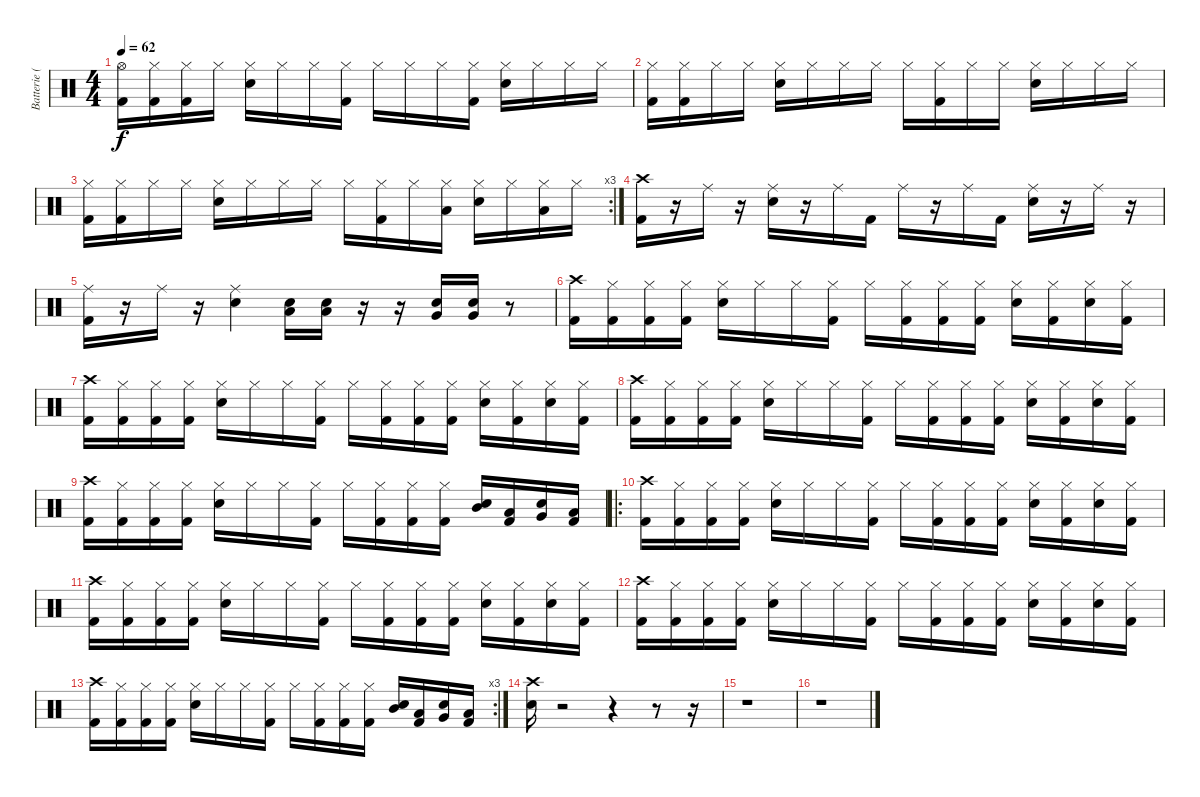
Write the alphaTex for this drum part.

\track ("Batterie (RV)" "Batterie (") {instrument percussion}
\staff {score}
\articulation defaults
\ts (4 4)
\tempo 62
\clef neutral
\ks c
("Kick (hit) 2" "Hi-Hat (open)").16{dy f} ("Kick (hit) 2" "Hi-Hat (closed)").16 ("Kick (hit) 2" "Hi-Hat (closed)").16 "Hi-Hat (closed)".16 ("Snare (hit) 2" "Hi-Hat (closed)").16 "Hi-Hat (closed)".16 "Hi-Hat (closed)".16 ("Kick (hit) 2" "Hi-Hat (closed)").16 "Hi-Hat (closed)".16 "Hi-Hat (closed)".16 "Hi-Hat (closed)".16 ("Kick (hit) 2" "Hi-Hat (closed)").16 ("Snare (hit) 2" "Hi-Hat (closed)").16 "Hi-Hat (closed)".16 "Hi-Hat (closed)".16 "Hi-Hat (closed)".16 |
("Kick (hit) 2" "Hi-Hat (closed)").16 ("Kick (hit) 2" "Hi-Hat (closed)").16 "Hi-Hat (closed)".16 "Hi-Hat (closed)".16 ("Snare (hit) 2" "Hi-Hat (closed)").16 "Hi-Hat (closed)".16 "Hi-Hat (closed)".16 "Hi-Hat (closed)".16 "Hi-Hat (closed)".16 ("Kick (hit) 2" "Hi-Hat (closed)").16 "Hi-Hat (closed)".16 "Hi-Hat (closed)".16 ("Snare (hit) 2" "Hi-Hat (closed)").16 "Hi-Hat (closed)".16 "Hi-Hat (closed)".16 "Hi-Hat (closed)".16 |
\rc 3
("Kick (hit) 2" "Hi-Hat (closed)").16 ("Kick (hit) 2" "Hi-Hat (closed)").16 "Hi-Hat (closed)".16 "Hi-Hat (closed)".16 ("Snare (hit) 2" "Hi-Hat (closed)").16 "Hi-Hat (closed)".16 "Hi-Hat (closed)".16 "Hi-Hat (closed)".16 "Hi-Hat (closed)".16 ("Kick (hit) 2" "Hi-Hat (closed)").16 "Hi-Hat (closed)".16 ("Low Floor Tom (hit)" "Hi-Hat (closed)").16 ("Snare (hit) 2" "Hi-Hat (closed)").16 "Hi-Hat (closed)".16 ("Low Floor Tom (hit)" "Hi-Hat (closed)").16 "Hi-Hat (closed)".16 |
("Kick (hit) 2" "Crash high (hit)").16 r.16 "Ride (middle)".16 r.16 ("Snare (hit) 2" "Ride (middle)").16 r.16 "Ride (middle)".16 "Kick (hit) 2".16 "Ride (middle)".16 r.16 "Ride (middle)".16 "Kick (hit) 2".16 ("Snare (hit) 2" "Ride (middle)").16 r.16 "Ride (middle)".16 r.16 |
("Kick (hit) 2" "Ride (middle)").16 r.16 "Ride (middle)".16 r.16 ("Snare (hit) 2" "Ride (middle)").4 ("Snare (hit) 2" "Low Tom (hit)").16 ("Snare (hit) 2" "Low Tom (hit)").16 r.16 r.16 ("Snare (hit) 2" "Very Low Tom (hit)").16 ("Snare (hit) 2" "Very Low Tom (hit)").16 r.8 |
("Kick (hit) 2" "Crash high (hit)").16 ("Kick (hit) 2" "Hi-Hat (closed)").16 ("Kick (hit) 2" "Hi-Hat (closed)").16 ("Kick (hit) 2" "Hi-Hat (closed)").16 ("Snare (hit) 2" "Hi-Hat (closed)").16 "Hi-Hat (closed)".16 "Hi-Hat (closed)".16 ("Kick (hit) 2" "Hi-Hat (closed)").16 "Hi-Hat (closed)".16 ("Kick (hit) 2" "Hi-Hat (closed)").16 ("Kick (hit) 2" "Hi-Hat (closed)").16 ("Kick (hit) 2" "Hi-Hat (closed)").16 ("Snare (hit) 2" "Hi-Hat (closed)").16 ("Kick (hit) 2" "Hi-Hat (closed)").16 ("Snare (hit) 2" "Hi-Hat (closed)").16 ("Kick (hit) 2" "Hi-Hat (closed)").16 |
("Kick (hit) 2" "Crash high (hit)").16 ("Kick (hit) 2" "Hi-Hat (closed)").16 ("Kick (hit) 2" "Hi-Hat (closed)").16 ("Kick (hit) 2" "Hi-Hat (closed)").16 ("Snare (hit) 2" "Hi-Hat (closed)").16 "Hi-Hat (closed)".16 "Hi-Hat (closed)".16 ("Kick (hit) 2" "Hi-Hat (closed)").16 "Hi-Hat (closed)".16 ("Kick (hit) 2" "Hi-Hat (closed)").16 ("Kick (hit) 2" "Hi-Hat (closed)").16 ("Kick (hit) 2" "Hi-Hat (closed)").16 ("Snare (hit) 2" "Hi-Hat (closed)").16 ("Kick (hit) 2" "Hi-Hat (closed)").16 ("Snare (hit) 2" "Hi-Hat (closed)").16 ("Kick (hit) 2" "Hi-Hat (closed)").16 |
("Kick (hit) 2" "Crash high (hit)").16 ("Kick (hit) 2" "Hi-Hat (closed)").16 ("Kick (hit) 2" "Hi-Hat (closed)").16 ("Kick (hit) 2" "Hi-Hat (closed)").16 ("Snare (hit) 2" "Hi-Hat (closed)").16 "Hi-Hat (closed)".16 "Hi-Hat (closed)".16 ("Kick (hit) 2" "Hi-Hat (closed)").16 "Hi-Hat (closed)".16 ("Kick (hit) 2" "Hi-Hat (closed)").16 ("Kick (hit) 2" "Hi-Hat (closed)").16 ("Kick (hit) 2" "Hi-Hat (closed)").16 ("Snare (hit) 2" "Hi-Hat (closed)").16 ("Kick (hit) 2" "Hi-Hat (closed)").16 ("Snare (hit) 2" "Hi-Hat (closed)").16 ("Kick (hit) 2" "Hi-Hat (closed)").16 |
("Kick (hit) 2" "Crash high (hit)").16 ("Kick (hit) 2" "Hi-Hat (closed)").16 ("Kick (hit) 2" "Hi-Hat (closed)").16 ("Kick (hit) 2" "Hi-Hat (closed)").16 ("Snare (hit) 2" "Hi-Hat (closed)").16 "Hi-Hat (closed)".16 "Hi-Hat (closed)".16 ("Kick (hit) 2" "Hi-Hat (closed)").16 "Hi-Hat (closed)".16 ("Kick (hit) 2" "Hi-Hat (closed)").16 ("Kick (hit) 2" "Hi-Hat (closed)").16 ("Kick (hit) 2" "Hi-Hat (closed)").16 ("Snare (hit) 2" "Mid Tom (hit)").16 ("Kick (hit) 2" "Low Tom (hit)").16 ("Snare (hit) 2" "Very Low Tom (hit)").16 ("Kick (hit) 2" "Low Floor Tom (hit)").16 |
\ro
("Kick (hit) 2" "Crash high (hit)").16 ("Kick (hit) 2" "Hi-Hat (closed)").16 ("Kick (hit) 2" "Hi-Hat (closed)").16 ("Kick (hit) 2" "Hi-Hat (closed)").16 ("Snare (hit) 2" "Hi-Hat (closed)").16 "Hi-Hat (closed)".16 "Hi-Hat (closed)".16 ("Kick (hit) 2" "Hi-Hat (closed)").16 "Hi-Hat (closed)".16 ("Kick (hit) 2" "Hi-Hat (closed)").16 ("Kick (hit) 2" "Hi-Hat (closed)").16 ("Kick (hit) 2" "Hi-Hat (closed)").16 ("Snare (hit) 2" "Hi-Hat (closed)").16 ("Kick (hit) 2" "Hi-Hat (closed)").16 ("Snare (hit) 2" "Hi-Hat (closed)").16 ("Kick (hit) 2" "Hi-Hat (closed)").16 |
("Kick (hit) 2" "Crash high (hit)").16 ("Kick (hit) 2" "Hi-Hat (closed)").16 ("Kick (hit) 2" "Hi-Hat (closed)").16 ("Kick (hit) 2" "Hi-Hat (closed)").16 ("Snare (hit) 2" "Hi-Hat (closed)").16 "Hi-Hat (closed)".16 "Hi-Hat (closed)".16 ("Kick (hit) 2" "Hi-Hat (closed)").16 "Hi-Hat (closed)".16 ("Kick (hit) 2" "Hi-Hat (closed)").16 ("Kick (hit) 2" "Hi-Hat (closed)").16 ("Kick (hit) 2" "Hi-Hat (closed)").16 ("Snare (hit) 2" "Hi-Hat (closed)").16 ("Kick (hit) 2" "Hi-Hat (closed)").16 ("Snare (hit) 2" "Hi-Hat (closed)").16 ("Kick (hit) 2" "Hi-Hat (closed)").16 |
("Kick (hit) 2" "Crash high (hit)").16 ("Kick (hit) 2" "Hi-Hat (closed)").16 ("Kick (hit) 2" "Hi-Hat (closed)").16 ("Kick (hit) 2" "Hi-Hat (closed)").16 ("Snare (hit) 2" "Hi-Hat (closed)").16 "Hi-Hat (closed)".16 "Hi-Hat (closed)".16 ("Kick (hit) 2" "Hi-Hat (closed)").16 "Hi-Hat (closed)".16 ("Kick (hit) 2" "Hi-Hat (closed)").16 ("Kick (hit) 2" "Hi-Hat (closed)").16 ("Kick (hit) 2" "Hi-Hat (closed)").16 ("Snare (hit) 2" "Hi-Hat (closed)").16 ("Kick (hit) 2" "Hi-Hat (closed)").16 ("Snare (hit) 2" "Hi-Hat (closed)").16 ("Kick (hit) 2" "Hi-Hat (closed)").16 |
\rc 3
("Kick (hit) 2" "Crash high (hit)").16 ("Kick (hit) 2" "Hi-Hat (closed)").16 ("Kick (hit) 2" "Hi-Hat (closed)").16 ("Kick (hit) 2" "Hi-Hat (closed)").16 ("Snare (hit) 2" "Hi-Hat (closed)").16 "Hi-Hat (closed)".16 "Hi-Hat (closed)".16 ("Kick (hit) 2" "Hi-Hat (closed)").16 "Hi-Hat (closed)".16 ("Kick (hit) 2" "Hi-Hat (closed)").16 ("Kick (hit) 2" "Hi-Hat (closed)").16 ("Kick (hit) 2" "Hi-Hat (closed)").16 ("Snare (hit) 2" "Mid Tom (hit)").16 ("Kick (hit) 2" "Low Tom (hit)").16 ("Snare (hit) 2" "Very Low Tom (hit)").16 ("Kick (hit) 2" "Low Floor Tom (hit)").16 |
("Snare (hit) 2" "Crash high (hit)").16 r.2 r.4 r.8 r.16 |
r.1 |
r.1
